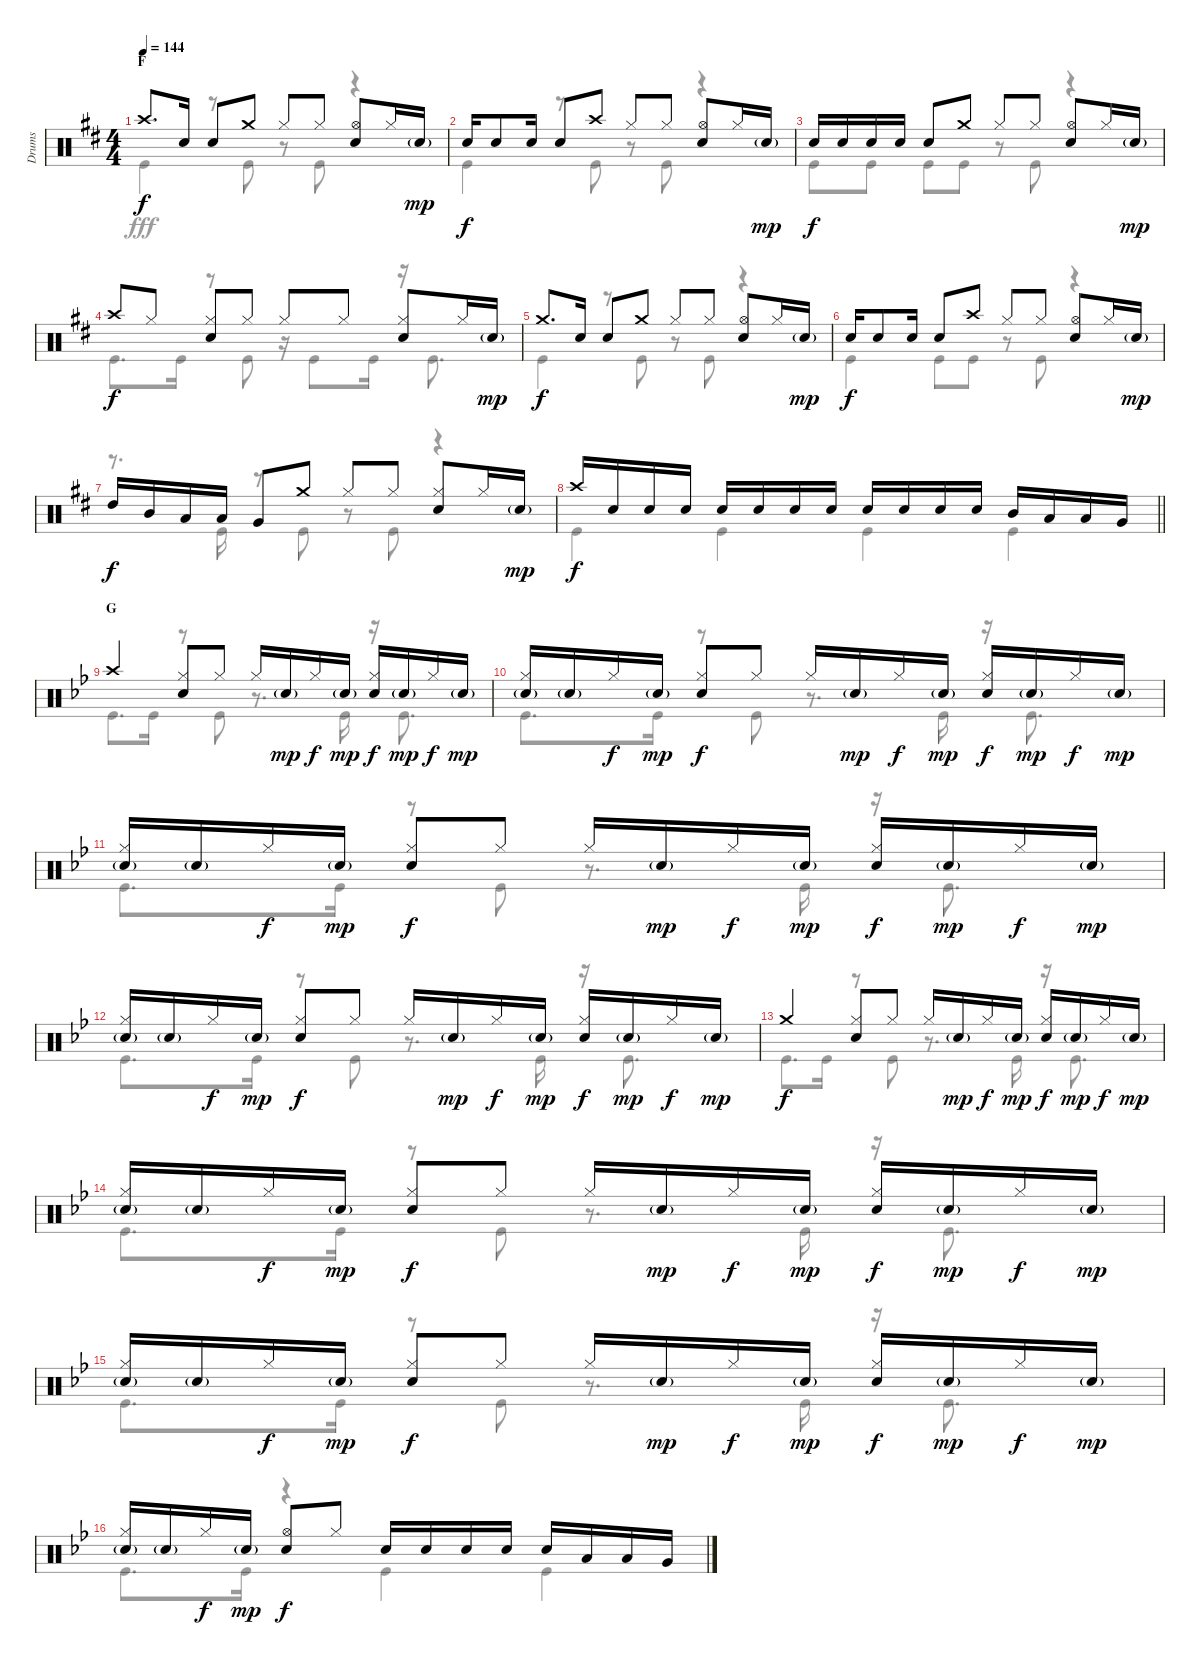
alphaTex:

\track ("Drums" "Drums") {instrument percussion}
\staff {score}
\articulation defaults
\voice
\ts (4 4)
\section ("" "F")
\tempo 144
\clef neutral
\ks d "Crash high (hit)".8{d dy f} "Snare (hit) 2".16 "Snare (hit) 2".8 "Crash medium (hit)".8 "Hi-Hat (closed)".8 "Hi-Hat (closed)".8
("Hi-Hat (open)" "Snare (hit) 2").8 "Hi-Hat (closed)".16 "Snare (hit) 2"{g}.16{dy mp} |
"Snare (hit) 2".16{dy f} "Snare (hit) 2".8 "Snare (hit) 2".16 "Snare (hit) 2".8 "Crash high (hit)".8 "Hi-Hat (closed)".8 "Hi-Hat (closed)".8 ("Hi-Hat (open)" "Snare (hit) 2").8 "Hi-Hat (closed)".16 "Snare (hit) 2"{g}.16{dy mp} |
"Snare (hit) 2".16{dy f} "Snare (hit) 2".16 "Snare (hit) 2".16 "Snare (hit) 2".16 "Snare (hit) 2".8 "Crash medium (hit)".8 "Hi-Hat (closed)".8 "Hi-Hat (closed)".8 ("Hi-Hat (open)" "Snare (hit) 2").8 "Hi-Hat (closed)".16 "Snare (hit) 2"{g}.16{dy mp} |
"Crash high (hit)".8{dy f} "Hi-Hat (closed)".8 ("Hi-Hat (closed)" "Snare (hit) 2").8 "Hi-Hat (closed)".8 "Hi-Hat (closed)".8 "Hi-Hat (closed)".8 ("Hi-Hat (closed)" "Snare (hit) 2").8 "Hi-Hat (closed)".16 "Snare (hit) 2"{g}.16{dy mp} |
"Crash medium (hit)".8{d dy f} "Snare (hit) 2".16 "Snare (hit) 2".8 "Crash medium (hit)".8 "Hi-Hat (closed)".8 "Hi-Hat (closed)".8 ("Hi-Hat (open)" "Snare (hit) 2").8 "Hi-Hat (closed)".16 "Snare (hit) 2"{g}.16{dy mp} |
"Snare (hit) 2".16{dy f} "Snare (hit) 2".8 "Snare (hit) 2".16 "Snare (hit) 2".8 "Crash high (hit)".8 "Hi-Hat (closed)".8 "Hi-Hat (closed)".8 ("Hi-Hat (open)" "Snare (hit) 2").8 "Hi-Hat (closed)".16 "Snare (hit) 2"{g}.16{dy mp} |
"High Tom (hit)".16{dy f} "Mid Tom (hit)".16 "Low Tom (hit)".16 "Low Tom (hit)".16 "Very Low Tom (hit)".8 "Crash medium (hit)".8 "Hi-Hat (closed)".8 "Hi-Hat (closed)".8 ("Hi-Hat (closed)" "Snare (hit) 2").8 "Hi-Hat (closed)".16 "Snare (hit) 2"{g}.16{dy mp} |
\barLineRight lightlight "Crash high (hit)".16{dy f} "Snare (hit) 2".16 "Snare (hit) 2".16 "Snare (hit) 2".16 "Snare (hit) 2".16 "Snare (hit) 2".16 "Snare (hit) 2".16 "Snare (hit) 2".16 "Snare (hit) 2".16 "Snare (hit) 2".16 "Snare (hit) 2".16 "Snare (hit) 2".16 "Mid Tom (hit)".16 "Low Tom (hit)".16 "Low Tom (hit)".16 "Very Low Tom (hit)".16
|
\section ("" "G")
\ks bb "Crash high (hit)".4
("Hi-Hat (closed)" "Snare (hit) 2").8 "Hi-Hat (closed)".8 "Hi-Hat (closed)".16 "Snare (hit) 2"{g}.16{dy mp} "Hi-Hat (closed)".16{dy f} "Snare (hit) 2"{g}.16{dy mp} ("Hi-Hat (closed)" "Snare (hit) 2").16{dy f} "Snare (hit) 2"{g}.16{dy mp} "Hi-Hat (closed)".16{dy f} "Snare (hit) 2"{g}.16{dy mp} |
("Hi-Hat (closed)" "Snare (hit) 2"{g}).16 "Snare (hit) 2"{g}.16 "Hi-Hat (closed)".16{dy f} "Snare (hit) 2"{g}.16{dy mp} ("Hi-Hat (closed)" "Snare (hit) 2").8{dy f} "Hi-Hat (closed)".8 "Hi-Hat (closed)".16 "Snare (hit) 2"{g}.16{dy mp} "Hi-Hat (closed)".16{dy f} "Snare (hit) 2"{g}.16{dy mp} ("Hi-Hat (closed)" "Snare (hit) 2").16{dy f} "Snare (hit) 2"{g}.16{dy mp} "Hi-Hat (closed)".16{dy f} "Snare (hit) 2"{g}.16{dy mp} |
("Hi-Hat (closed)" "Snare (hit) 2"{g}).16 "Snare (hit) 2"{g}.16 "Hi-Hat (closed)".16{dy f} "Snare (hit) 2"{g}.16{dy mp} ("Hi-Hat (closed)" "Snare (hit) 2").8{dy f} "Hi-Hat (closed)".8 "Hi-Hat (closed)".16 "Snare (hit) 2"{g}.16{dy mp} "Hi-Hat (closed)".16{dy f} "Snare (hit) 2"{g}.16{dy mp} ("Hi-Hat (closed)" "Snare (hit) 2").16{dy f} "Snare (hit) 2"{g}.16{dy mp} "Hi-Hat (closed)".16{dy f} "Snare (hit) 2"{g}.16{dy mp} |
("Hi-Hat (closed)" "Snare (hit) 2"{g}).16 "Snare (hit) 2"{g}.16 "Hi-Hat (closed)".16{dy f} "Snare (hit) 2"{g}.16{dy mp} ("Hi-Hat (closed)" "Snare (hit) 2").8{dy f} "Hi-Hat (closed)".8 "Hi-Hat (closed)".16 "Snare (hit) 2"{g}.16{dy mp} "Hi-Hat (closed)".16{dy f} "Snare (hit) 2"{g}.16{dy mp} ("Hi-Hat (closed)" "Snare (hit) 2").16{dy f} "Snare (hit) 2"{g}.16{dy mp} "Hi-Hat (closed)".16{dy f} "Snare (hit) 2"{g}.16{dy mp} |
"Crash medium (hit)".4{dy f} ("Hi-Hat (closed)" "Snare (hit) 2").8 "Hi-Hat (closed)".8 "Hi-Hat (closed)".16 "Snare (hit) 2"{g}.16{dy mp} "Hi-Hat (closed)".16{dy f} "Snare (hit) 2"{g}.16{dy mp} ("Hi-Hat (closed)" "Snare (hit) 2").16{dy f} "Snare (hit) 2"{g}.16{dy mp} "Hi-Hat (closed)".16{dy f} "Snare (hit) 2"{g}.16{dy mp} |
("Hi-Hat (closed)" "Snare (hit) 2"{g}).16 "Snare (hit) 2"{g}.16 "Hi-Hat (closed)".16{dy f} "Snare (hit) 2"{g}.16{dy mp} ("Hi-Hat (closed)" "Snare (hit) 2").8{dy f} "Hi-Hat (closed)".8 "Hi-Hat (closed)".16 "Snare (hit) 2"{g}.16{dy mp} "Hi-Hat (closed)".16{dy f} "Snare (hit) 2"{g}.16{dy mp} ("Hi-Hat (closed)" "Snare (hit) 2").16{dy f} "Snare (hit) 2"{g}.16{dy mp} "Hi-Hat (closed)".16{dy f} "Snare (hit) 2"{g}.16{dy mp} |
("Hi-Hat (closed)" "Snare (hit) 2"{g}).16 "Snare (hit) 2"{g}.16 "Hi-Hat (closed)".16{dy f} "Snare (hit) 2"{g}.16{dy mp} ("Hi-Hat (closed)" "Snare (hit) 2").8{dy f} "Hi-Hat (closed)".8 "Hi-Hat (closed)".16 "Snare (hit) 2"{g}.16{dy mp} "Hi-Hat (closed)".16{dy f} "Snare (hit) 2"{g}.16{dy mp} ("Hi-Hat (closed)" "Snare (hit) 2").16{dy f} "Snare (hit) 2"{g}.16{dy mp} "Hi-Hat (closed)".16{dy f} "Snare (hit) 2"{g}.16{dy mp} |
("Hi-Hat (closed)" "Snare (hit) 2"{g}).16 "Snare (hit) 2"{g}.16 "Hi-Hat (closed)".16{dy f} "Snare (hit) 2"{g}.16{dy mp} ("Hi-Hat (open)" "Snare (hit) 2").8{dy f} "Hi-Hat (closed)".8 "Snare (hit) 2".16 "Snare (hit) 2".16 "Snare (hit) 2".16 "Snare (hit) 2".16 "Snare (hit) 2".16 "Low Tom (hit)".16 "Low Tom (hit)".16 "Very Low Tom (hit)".16
\voice
\clef neutral
\ottava regular
\simile none
\ks d "Kick (hit)".4{dy fff}
r.8 "Kick (hit)".8 r.8 "Kick (hit)".8 r.4 |
"Kick (hit)".4 r.8 "Kick (hit)".8 r.8 "Kick (hit)".8 r.4 |
"Kick (hit)".8 "Kick (hit)".8 "Kick (hit)".8 "Kick (hit)".8 r.8 "Kick (hit)".8 r.4 |
"Kick (hit)".8{d} "Kick (hit)".16 r.8 "Kick (hit)".8 r.16 "Kick (hit)".8 "Kick (hit)".16 r.16 "Kick (hit)".8{d} |
"Kick (hit)".4 r.8 "Kick (hit)".8 r.8 "Kick (hit)".8 r.4 |
"Kick (hit)".4 "Kick (hit)".8 "Kick (hit)".8 r.8 "Kick (hit)".8 r.4 |
r.8{d} "Kick (hit)".16 r.8 "Kick (hit)".8 r.8 "Kick (hit)".8 r.4 |
\barLineRight lightlight "Kick (hit)".4 "Kick (hit)".4 "Kick (hit)".4 "Kick (hit)".4
|
\ks bb "Kick (hit)".8{d} "Kick (hit)".16
r.8 "Kick (hit)".8 r.8{d} "Kick (hit)".16 r.16 "Kick (hit)".8{d} |
"Kick (hit)".8{d} "Kick (hit)".16 r.8 "Kick (hit)".8 r.8{d} "Kick (hit)".16 r.16 "Kick (hit)".8{d} |
"Kick (hit)".8{d} "Kick (hit)".16 r.8 "Kick (hit)".8 r.8{d} "Kick (hit)".16 r.16 "Kick (hit)".8{d} |
"Kick (hit)".8{d} "Kick (hit)".16 r.8 "Kick (hit)".8 r.8{d} "Kick (hit)".16 r.16 "Kick (hit)".8{d} |
"Kick (hit)".8{d} "Kick (hit)".16 r.8 "Kick (hit)".8 r.8{d} "Kick (hit)".16 r.16 "Kick (hit)".8{d} |
"Kick (hit)".8{d} "Kick (hit)".16 r.8 "Kick (hit)".8 r.8{d} "Kick (hit)".16 r.16 "Kick (hit)".8{d} |
"Kick (hit)".8{d} "Kick (hit)".16 r.8 "Kick (hit)".8 r.8{d} "Kick (hit)".16 r.16 "Kick (hit)".8{d} |
"Kick (hit)".8{d} "Kick (hit)".16 r.4 "Kick (hit)".4 "Kick (hit)".4
